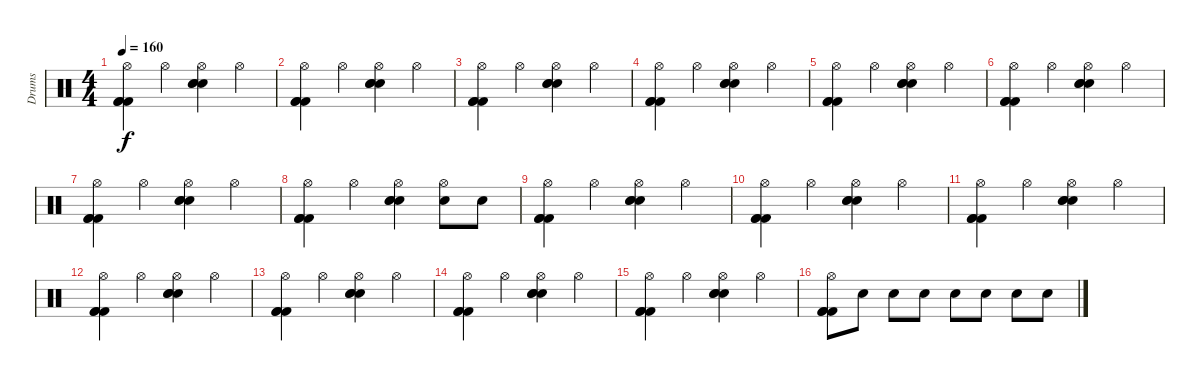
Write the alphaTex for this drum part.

\track ("Drums" "Drums") {instrument percussion}
\staff {score}
\articulation defaults
\ts (4 4)
\tempo 160
\clef neutral
\ks c
("Hi-Hat (open)" "Kick (hit) 2" "Kick (hit) 2" "Kick (hit) 2").4{dy f} "Hi-Hat (open)".4 ("Hi-Hat (open)" "Electric Snare (hit)" "Electric Snare (hit)" "Electric Snare (hit)").4 "Hi-Hat (open)".4 |
("Hi-Hat (open)" "Kick (hit) 2" "Kick (hit) 2" "Kick (hit) 2").4 "Hi-Hat (open)".4 ("Hi-Hat (open)" "Electric Snare (hit)" "Electric Snare (hit)" "Electric Snare (hit)").4 "Hi-Hat (open)".4 |
("Hi-Hat (open)" "Kick (hit) 2" "Kick (hit) 2" "Kick (hit) 2").4 "Hi-Hat (open)".4 ("Hi-Hat (open)" "Electric Snare (hit)" "Electric Snare (hit)" "Electric Snare (hit)").4 "Hi-Hat (open)".4 |
("Hi-Hat (open)" "Kick (hit) 2" "Kick (hit) 2" "Kick (hit) 2").4 "Hi-Hat (open)".4 ("Hi-Hat (open)" "Electric Snare (hit)" "Electric Snare (hit)" "Electric Snare (hit)").4 "Hi-Hat (open)".4 |
("Hi-Hat (open)" "Kick (hit) 2" "Kick (hit) 2" "Kick (hit) 2").4 "Hi-Hat (open)".4 ("Hi-Hat (open)" "Electric Snare (hit)" "Electric Snare (hit)" "Electric Snare (hit)").4 "Hi-Hat (open)".4 |
("Hi-Hat (open)" "Kick (hit) 2" "Kick (hit) 2" "Kick (hit) 2").4 "Hi-Hat (open)".4 ("Hi-Hat (open)" "Electric Snare (hit)" "Electric Snare (hit)" "Electric Snare (hit)").4 "Hi-Hat (open)".4 |
("Hi-Hat (open)" "Kick (hit) 2" "Kick (hit) 2" "Kick (hit) 2").4 "Hi-Hat (open)".4 ("Hi-Hat (open)" "Electric Snare (hit)" "Electric Snare (hit)" "Electric Snare (hit)").4 "Hi-Hat (open)".4 |
("Hi-Hat (open)" "Kick (hit) 2" "Kick (hit) 2" "Kick (hit) 2").4 "Hi-Hat (open)".4 ("Hi-Hat (open)" "Electric Snare (hit)" "Electric Snare (hit)" "Electric Snare (hit)").4 ("Hi-Hat (open)" "Electric Snare (hit)").8 "Electric Snare (hit)".8 |
("Hi-Hat (open)" "Kick (hit) 2" "Kick (hit) 2" "Kick (hit) 2").4 "Hi-Hat (open)".4 ("Hi-Hat (open)" "Electric Snare (hit)" "Electric Snare (hit)" "Electric Snare (hit)").4 "Hi-Hat (open)".4 |
("Hi-Hat (open)" "Kick (hit) 2" "Kick (hit) 2" "Kick (hit) 2").4 "Hi-Hat (open)".4 ("Hi-Hat (open)" "Electric Snare (hit)" "Electric Snare (hit)" "Electric Snare (hit)").4 "Hi-Hat (open)".4 |
("Hi-Hat (open)" "Kick (hit) 2" "Kick (hit) 2" "Kick (hit) 2").4 "Hi-Hat (open)".4 ("Hi-Hat (open)" "Electric Snare (hit)" "Electric Snare (hit)" "Electric Snare (hit)").4 "Hi-Hat (open)".4 |
("Hi-Hat (open)" "Kick (hit) 2" "Kick (hit) 2" "Kick (hit) 2").4 "Hi-Hat (open)".4 ("Hi-Hat (open)" "Electric Snare (hit)" "Electric Snare (hit)" "Electric Snare (hit)").4 "Hi-Hat (open)".4 |
("Hi-Hat (open)" "Kick (hit) 2" "Kick (hit) 2" "Kick (hit) 2").4 "Hi-Hat (open)".4 ("Hi-Hat (open)" "Electric Snare (hit)" "Electric Snare (hit)" "Electric Snare (hit)").4 "Hi-Hat (open)".4 |
("Hi-Hat (open)" "Kick (hit) 2" "Kick (hit) 2" "Kick (hit) 2").4 "Hi-Hat (open)".4 ("Hi-Hat (open)" "Electric Snare (hit)" "Electric Snare (hit)" "Electric Snare (hit)").4 "Hi-Hat (open)".4 |
("Hi-Hat (open)" "Kick (hit) 2" "Kick (hit) 2" "Kick (hit) 2").4 "Hi-Hat (open)".4 ("Hi-Hat (open)" "Electric Snare (hit)" "Electric Snare (hit)" "Electric Snare (hit)").4 "Hi-Hat (open)".4 |
("Hi-Hat (open)" "Kick (hit) 2" "Kick (hit) 2" "Kick (hit) 2").8 "Electric Snare (hit)".8 "Electric Snare (hit)".8 "Electric Snare (hit)".8 "Electric Snare (hit)".8 "Electric Snare (hit)".8 "Electric Snare (hit)".8 "Electric Snare (hit)".8
